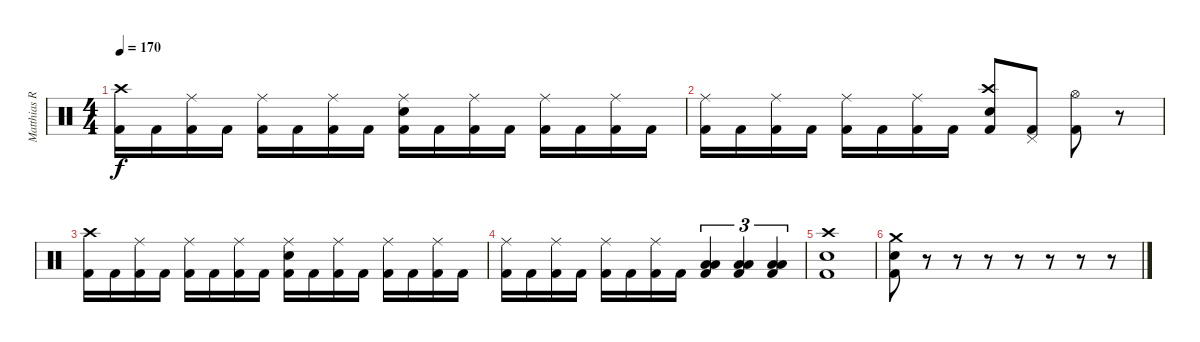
\track ("Matthias R." "Matthias R") {instrument percussion}
\staff {score}
\articulation defaults
\ts (4 4)
\tempo 170
\clef neutral
\ks c
("Kick (hit) 2" "Crash high (hit)").16{dy f} "Kick (hit) 2".16 ("Kick (hit) 2" "Ride (middle)").16 "Kick (hit) 2".16 ("Kick (hit) 2" "Ride (middle)").16 "Kick (hit) 2".16 ("Kick (hit) 2" "Ride (middle)").16 "Kick (hit) 2".16 ("Kick (hit) 2" "Snare (hit) 2" "Ride (middle)").16 "Kick (hit) 2".16 ("Kick (hit) 2" "Ride (middle)").16 "Kick (hit) 2".16 ("Kick (hit) 2" "Ride (middle)").16 "Kick (hit) 2".16 ("Kick (hit) 2" "Ride (middle)").16 "Kick (hit) 2".16 |
("Kick (hit) 2" "Ride (middle)").16 "Kick (hit) 2".16 ("Kick (hit) 2" "Ride (middle)").16 "Kick (hit) 2".16 ("Kick (hit) 2" "Ride (middle)").16 "Kick (hit) 2".16 ("Kick (hit) 2" "Ride (middle)").16 "Kick (hit) 2".16 ("Kick (hit) 2" "Snare (hit) 2" "Crash high (hit)").8 ("Kick (hit) 2" "Pedal Hi-Hat (hit)").8 ("Kick (hit) 2" "Hi-Hat (open)").8 r.8 |
("Kick (hit) 2" "Crash high (hit)").16 "Kick (hit) 2".16 ("Kick (hit) 2" "Ride (middle)").16 "Kick (hit) 2".16 ("Kick (hit) 2" "Ride (middle)").16 "Kick (hit) 2".16 ("Kick (hit) 2" "Ride (middle)").16 "Kick (hit) 2".16 ("Kick (hit) 2" "Snare (hit) 2" "Ride (middle)").16 "Kick (hit) 2".16 ("Kick (hit) 2" "Ride (middle)").16 "Kick (hit) 2".16 ("Kick (hit) 2" "Ride (middle)").16 "Kick (hit) 2".16 ("Kick (hit) 2" "Ride (middle)").16 "Kick (hit) 2".16 |
("Kick (hit) 2" "Ride (middle)").16 "Kick (hit) 2".16 ("Kick (hit) 2" "Ride (middle)").16 "Kick (hit) 2".16 ("Kick (hit) 2" "Ride (middle)").16 "Kick (hit) 2".16 ("Kick (hit) 2" "Ride (middle)").16 "Kick (hit) 2".16 ("Kick (hit) 2" "Low Tom (hit)" "Low Tom (hit)").4{tu (3 2)} ("Kick (hit) 2" "Low Tom (hit)" "Low Tom (hit)").4{tu (3 2)} ("Kick (hit) 2" "Low Tom (hit)" "Low Tom (hit)").4{tu (3 2)} |
("Kick (hit) 2" "Snare (hit) 2" "Crash high (hit)").1 |
("Kick (hit) 2" "Snare (hit) 2" "Crash medium (hit)").8 r.8 r.8 r.8 r.8 r.8 r.8 r.8
